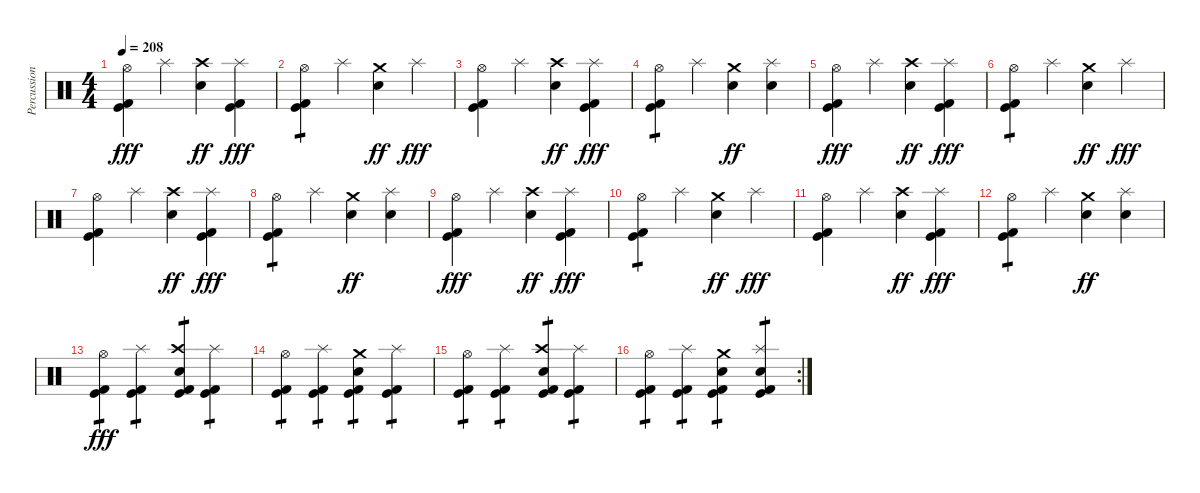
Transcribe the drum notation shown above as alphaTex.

\track ("Percussion" "Percussion") {instrument percussion}
\staff {score}
\articulation defaults
\ts (4 4)
\tempo 208
\clef neutral
\ks c
("Hi-Hat (open)" "Kick (hit) 2" "Kick (hit)").4{dy fff} "Splash (hit)".4 ("Crash high (hit)" "Electric Snare (hit)").4{dy ff} ("Splash (hit)" "Kick (hit) 2" "Kick (hit)").4{dy fff} |
("Hi-Hat (open)" "Kick (hit) 2" "Kick (hit)").4{tp 1} "Splash (hit)".4 ("Crash medium (hit)" "Electric Snare (hit)").4{dy ff} "Splash (hit)".4{dy fff} |
("Hi-Hat (open)" "Kick (hit) 2" "Kick (hit)").4 "Splash (hit)".4 ("Crash high (hit)" "Electric Snare (hit)").4{dy ff} ("Splash (hit)" "Kick (hit) 2" "Kick (hit)").4{dy fff} |
("Hi-Hat (open)" "Kick (hit) 2" "Kick (hit)").4{tp 1} "Splash (hit)".4 ("Crash medium (hit)" "Electric Snare (hit)").4{dy ff} ("Splash (hit)" "Electric Snare (hit)").4 |
("Hi-Hat (open)" "Kick (hit) 2" "Kick (hit)").4{dy fff} "Splash (hit)".4 ("Crash high (hit)" "Electric Snare (hit)").4{dy ff} ("Splash (hit)" "Kick (hit) 2" "Kick (hit)").4{dy fff} |
("Hi-Hat (open)" "Kick (hit) 2" "Kick (hit)").4{tp 1} "Splash (hit)".4 ("Crash medium (hit)" "Electric Snare (hit)").4{dy ff} "Splash (hit)".4{dy fff} |
("Hi-Hat (open)" "Kick (hit) 2" "Kick (hit)").4 "Splash (hit)".4 ("Crash high (hit)" "Electric Snare (hit)").4{dy ff} ("Splash (hit)" "Kick (hit) 2" "Kick (hit)").4{dy fff} |
("Hi-Hat (open)" "Kick (hit) 2" "Kick (hit)").4{tp 1} "Splash (hit)".4 ("Crash medium (hit)" "Electric Snare (hit)").4{dy ff} ("Splash (hit)" "Electric Snare (hit)").4 |
("Hi-Hat (open)" "Kick (hit) 2" "Kick (hit)").4{dy fff} "Splash (hit)".4 ("Crash high (hit)" "Electric Snare (hit)").4{dy ff} ("Splash (hit)" "Kick (hit) 2" "Kick (hit)").4{dy fff} |
("Hi-Hat (open)" "Kick (hit) 2" "Kick (hit)").4{tp 1} "Splash (hit)".4 ("Crash medium (hit)" "Electric Snare (hit)").4{dy ff} "Splash (hit)".4{dy fff} |
("Hi-Hat (open)" "Kick (hit) 2" "Kick (hit)").4 "Splash (hit)".4 ("Crash high (hit)" "Electric Snare (hit)").4{dy ff} ("Splash (hit)" "Kick (hit) 2" "Kick (hit)").4{dy fff} |
("Hi-Hat (open)" "Kick (hit) 2" "Kick (hit)").4{tp 1} "Splash (hit)".4 ("Crash medium (hit)" "Electric Snare (hit)").4{dy ff} ("Splash (hit)" "Electric Snare (hit)").4 |
("Hi-Hat (open)" "Kick (hit) 2" "Kick (hit)").4{tp 1 dy fff} ("Splash (hit)" "Kick (hit) 2" "Kick (hit)").4{tp 1} ("Crash high (hit)" "Electric Snare (hit)" "Kick (hit) 2" "Kick (hit)").4{tp 1} ("Splash (hit)" "Kick (hit) 2" "Kick (hit)").4{tp 1} |
("Hi-Hat (open)" "Kick (hit) 2" "Kick (hit)").4{tp 1} ("Splash (hit)" "Kick (hit) 2" "Kick (hit)").4{tp 1} ("Crash medium (hit)" "Electric Snare (hit)" "Kick (hit) 2" "Kick (hit)").4{tp 1} ("Splash (hit)" "Kick (hit) 2" "Kick (hit)").4{tp 1} |
("Hi-Hat (open)" "Kick (hit) 2" "Kick (hit)").4{tp 1} ("Splash (hit)" "Kick (hit) 2" "Kick (hit)").4{tp 1} ("Crash high (hit)" "Electric Snare (hit)" "Kick (hit) 2" "Kick (hit)").4{tp 1} ("Splash (hit)" "Kick (hit) 2" "Kick (hit)").4{tp 1} |
\rc 2
("Hi-Hat (open)" "Kick (hit) 2" "Kick (hit)").4{tp 1} ("Splash (hit)" "Kick (hit) 2" "Kick (hit)").4{tp 1} ("Crash medium (hit)" "Electric Snare (hit)" "Kick (hit) 2" "Kick (hit)").4{tp 1} ("Splash (hit)" "Electric Snare (hit)" "Kick (hit) 2" "Kick (hit)").4{tp 1}
